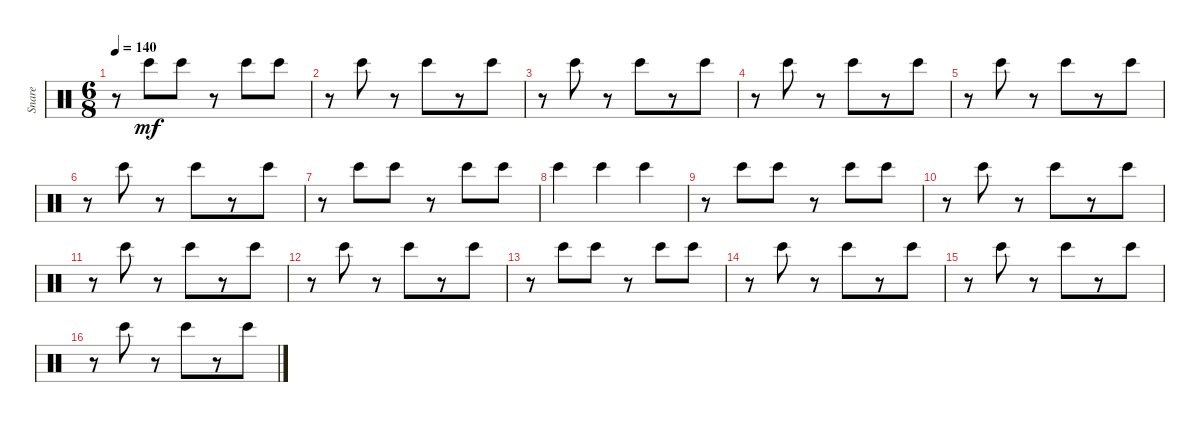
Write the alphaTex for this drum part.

\track ("Snare" "Snare") {instrument percussion}
\staff {score}
\articulation defaults
\ts (6 8)
\tempo 140
\clef neutral
\ks c
r.8{dy mf} "Bongo High (hit)".8 "Bongo High (hit)".8 r.8 "Bongo High (hit)".8 "Bongo High (hit)".8 |
r.8 "Bongo High (hit)".8 r.8 "Bongo High (hit)".8 r.8 "Bongo High (hit)".8 |
r.8 "Bongo High (hit)".8 r.8 "Bongo High (hit)".8 r.8 "Bongo High (hit)".8 |
r.8 "Bongo High (hit)".8 r.8 "Bongo High (hit)".8 r.8 "Bongo High (hit)".8 |
r.8 "Bongo High (hit)".8 r.8 "Bongo High (hit)".8 r.8 "Bongo High (hit)".8 |
r.8 "Bongo High (hit)".8 r.8 "Bongo High (hit)".8 r.8 "Bongo High (hit)".8 |
r.8 "Bongo High (hit)".8 "Bongo High (hit)".8 r.8 "Bongo High (hit)".8 "Bongo High (hit)".8 |
"Bongo High (hit)".4 "Bongo High (hit)".4 "Bongo High (hit)".4 |
r.8 "Bongo High (hit)".8 "Bongo High (hit)".8 r.8 "Bongo High (hit)".8 "Bongo High (hit)".8 |
r.8 "Bongo High (hit)".8 r.8 "Bongo High (hit)".8 r.8 "Bongo High (hit)".8 |
r.8 "Bongo High (hit)".8 r.8 "Bongo High (hit)".8 r.8 "Bongo High (hit)".8 |
r.8 "Bongo High (hit)".8 r.8 "Bongo High (hit)".8 r.8 "Bongo High (hit)".8 |
r.8 "Bongo High (hit)".8 "Bongo High (hit)".8 r.8 "Bongo High (hit)".8 "Bongo High (hit)".8 |
r.8 "Bongo High (hit)".8 r.8 "Bongo High (hit)".8 r.8 "Bongo High (hit)".8 |
r.8 "Bongo High (hit)".8 r.8 "Bongo High (hit)".8 r.8 "Bongo High (hit)".8 |
r.8 "Bongo High (hit)".8 r.8 "Bongo High (hit)".8 r.8 "Bongo High (hit)".8
